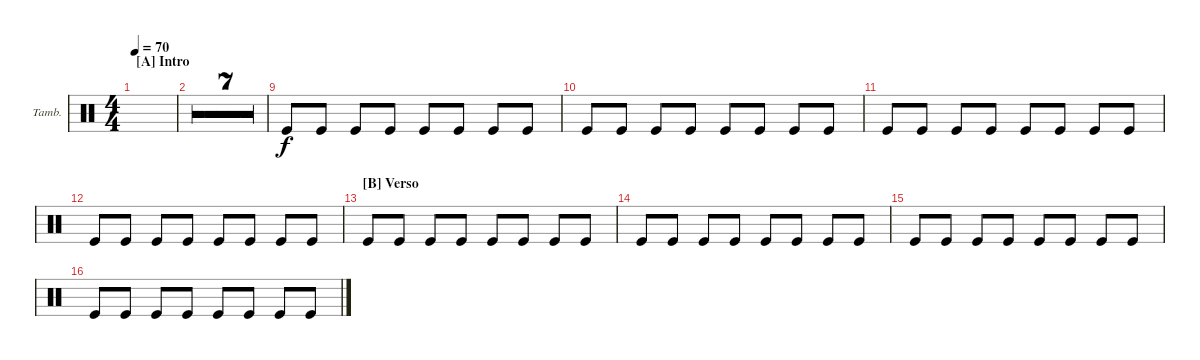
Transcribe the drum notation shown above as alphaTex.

\defaultSystemsLayout 4
\bracketExtendMode groupsimilarinstruments
\firstSystemTrackNameOrientation horizontal
\otherSystemsTrackNameOrientation horizontal
\track ("Tambourine" "Tamb.") {multiBarRest instrument percussion}
\staff {score}
\articulation defaults
\ts (4 4)
\section ("A" "Intro")
\tempo 70
\clef neutral
\ks c
|
|
|
|
|
|
|
|
"Kick (hit)".8 "Kick (hit)".8 "Kick (hit)".8 "Kick (hit)".8 "Kick (hit)".8 "Kick (hit)".8 "Kick (hit)".8 "Kick (hit)".8 |
"Kick (hit)".8 "Kick (hit)".8 "Kick (hit)".8 "Kick (hit)".8 "Kick (hit)".8 "Kick (hit)".8 "Kick (hit)".8 "Kick (hit)".8 |
"Kick (hit)".8 "Kick (hit)".8 "Kick (hit)".8 "Kick (hit)".8 "Kick (hit)".8 "Kick (hit)".8 "Kick (hit)".8 "Kick (hit)".8 |
"Kick (hit)".8 "Kick (hit)".8 "Kick (hit)".8 "Kick (hit)".8 "Kick (hit)".8 "Kick (hit)".8 "Kick (hit)".8 "Kick (hit)".8 |
\section ("B" "Verso")
"Kick (hit)".8 "Kick (hit)".8 "Kick (hit)".8 "Kick (hit)".8 "Kick (hit)".8 "Kick (hit)".8 "Kick (hit)".8 "Kick (hit)".8 |
"Kick (hit)".8 "Kick (hit)".8 "Kick (hit)".8 "Kick (hit)".8 "Kick (hit)".8 "Kick (hit)".8 "Kick (hit)".8 "Kick (hit)".8 |
"Kick (hit)".8 "Kick (hit)".8 "Kick (hit)".8 "Kick (hit)".8 "Kick (hit)".8 "Kick (hit)".8 "Kick (hit)".8 "Kick (hit)".8 |
"Kick (hit)".8 "Kick (hit)".8 "Kick (hit)".8 "Kick (hit)".8 "Kick (hit)".8 "Kick (hit)".8 "Kick (hit)".8 "Kick (hit)".8
